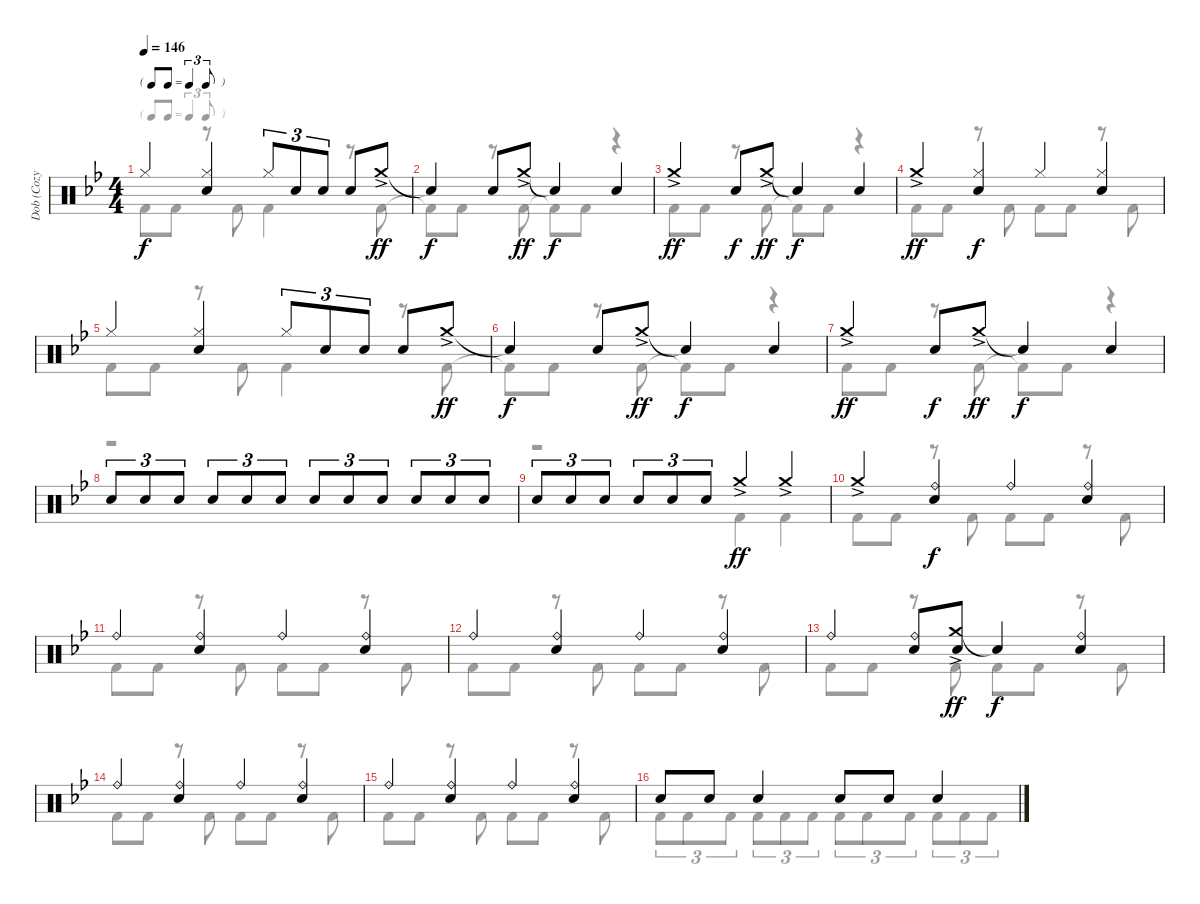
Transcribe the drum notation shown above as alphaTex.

\track ("Dob (Cozy Powell)" "Dob (Cozy ") {instrument percussion}
\staff {score}
\articulation defaults
\voice
\ts (4 4)
\tf triplet8th
\tempo 146
\clef neutral
\ks bb "Hi-Hat (closed)".4{dy f}
("Hi-Hat (closed)" "Electric Snare (hit)").4 "Hi-Hat (closed)".8{tu (3 2)} "Electric Snare (hit)".8{tu (3 2)} "Electric Snare (hit)".8{tu (3 2)} "Electric Snare (hit)".8 "Crash medium (hit)"{ac}.8{dy ff} |
"Snare (hit)"{t}.4{dy f} "Electric Snare (hit)".8 "Crash medium (hit)"{ac}.8{dy ff} "Snare (hit)"{t}.4{dy f} "Electric Snare (hit)".4 |
"Crash medium (hit)"{ac}.4{dy ff} "Electric Snare (hit)".8{dy f} "Crash medium (hit)"{ac}.8{dy ff} "Snare (hit)"{t}.4{dy f} "Electric Snare (hit)".4 |
"Crash medium (hit)"{ac}.4{dy ff} ("Hi-Hat (closed)" "Electric Snare (hit)").4{dy f} "Hi-Hat (closed)".4 ("Hi-Hat (closed)" "Electric Snare (hit)").4 |
"Hi-Hat (closed)".4 ("Hi-Hat (closed)" "Electric Snare (hit)").4 "Hi-Hat (closed)".8{tu (3 2)} "Electric Snare (hit)".8{tu (3 2)} "Electric Snare (hit)".8{tu (3 2)} "Electric Snare (hit)".8 "Crash medium (hit)"{ac}.8{dy ff} |
"Snare (hit)"{t}.4{dy f} "Electric Snare (hit)".8 "Crash medium (hit)"{ac}.8{dy ff} "Snare (hit)"{t}.4{dy f} "Electric Snare (hit)".4 |
"Crash medium (hit)"{ac}.4{dy ff} "Electric Snare (hit)".8{dy f} "Crash medium (hit)"{ac}.8{dy ff} "Snare (hit)"{t}.4{dy f} "Electric Snare (hit)".4 |
"Electric Snare (hit)".8{tu (3 2)} "Electric Snare (hit)".8{tu (3 2)} "Electric Snare (hit)".8{tu (3 2)} "Electric Snare (hit)".8{tu (3 2)} "Electric Snare (hit)".8{tu (3 2)} "Electric Snare (hit)".8{tu (3 2)} "Electric Snare (hit)".8{tu (3 2)} "Electric Snare (hit)".8{tu (3 2)} "Electric Snare (hit)".8{tu (3 2)} "Electric Snare (hit)".8{tu (3 2)} "Electric Snare (hit)".8{tu (3 2)} "Electric Snare (hit)".8{tu (3 2)} |
"Electric Snare (hit)".8{tu (3 2)} "Electric Snare (hit)".8{tu (3 2)} "Electric Snare (hit)".8{tu (3 2)} "Electric Snare (hit)".8{tu (3 2)} "Electric Snare (hit)".8{tu (3 2)} "Electric Snare (hit)".8{tu (3 2)} "Crash medium (hit)"{ac}.4{dy ff} "Crash medium (hit)"{ac}.4 |
"Crash medium (hit)"{ac}.4 ("Ride (bell)" "Electric Snare (hit)").4{dy f} "Ride (bell)".4 ("Ride (bell)" "Electric Snare (hit)").4 |
"Ride (bell)".4 ("Ride (bell)" "Electric Snare (hit)").4 "Ride (bell)".4 ("Ride (bell)" "Electric Snare (hit)").4 |
"Ride (bell)".4 ("Ride (bell)" "Electric Snare (hit)").4 "Ride (bell)".4 ("Ride (bell)" "Electric Snare (hit)").4 |
"Ride (bell)".4 ("Ride (bell)" "Electric Snare (hit)").8 ("Crash medium (hit)"{ac} "Electric Snare (hit)").8{dy ff} "Snare (hit)"{t}.4{dy f} ("Ride (bell)" "Electric Snare (hit)").4 |
"Ride (bell)".4 ("Ride (bell)" "Electric Snare (hit)").4 "Ride (bell)".4 ("Ride (bell)" "Electric Snare (hit)").4 |
"Ride (bell)".4 ("Ride (bell)" "Electric Snare (hit)").4 "Ride (bell)".4 ("Ride (bell)" "Electric Snare (hit)").4 |
"Electric Snare (hit)".8 "Electric Snare (hit)".8 "Electric Snare (hit)".4 "Electric Snare (hit)".8 "Electric Snare (hit)".8 "Electric Snare (hit)".4
\voice
\clef neutral
\ottava regular
\simile none
\ks bb "Kick (hit) 2".8{dy f} "Kick (hit) 2".8
r.8 "Kick (hit) 2".8 "Kick (hit) 2".4 r.8 "Kick (hit) 2".8 |
"Kick (hit) 2"{t}.8 "Kick (hit) 2".8 r.8 "Kick (hit) 2".8 "Kick (hit) 2"{t}.8 "Kick (hit) 2".8 r.4 |
"Kick (hit) 2".8 "Kick (hit) 2".8 r.8 "Kick (hit) 2".8 "Kick (hit) 2"{t}.8 "Kick (hit) 2".8 r.4 |
"Kick (hit) 2".8 "Kick (hit) 2".8 r.8 "Kick (hit) 2".8 "Kick (hit) 2".8 "Kick (hit) 2".8 r.8 "Kick (hit) 2".8 |
"Kick (hit) 2".8 "Kick (hit) 2".8 r.8 "Kick (hit) 2".8 "Kick (hit) 2".4 r.8 "Kick (hit) 2".8 |
"Kick (hit) 2"{t}.8 "Kick (hit) 2".8 r.8 "Kick (hit) 2".8 "Kick (hit) 2"{t}.8 "Kick (hit) 2".8 r.4 |
"Kick (hit) 2".8 "Kick (hit) 2".8 r.8 "Kick (hit) 2".8 "Kick (hit) 2"{t}.8 "Kick (hit) 2".8 r.4 |
r.1 |
r.2 "Kick (hit) 2".4 "Kick (hit) 2".4 |
"Kick (hit) 2".8 "Kick (hit) 2".8 r.8 "Kick (hit) 2".8 "Kick (hit) 2".8 "Kick (hit) 2".8 r.8 "Kick (hit) 2".8 |
"Kick (hit) 2".8 "Kick (hit) 2".8 r.8 "Kick (hit) 2".8 "Kick (hit) 2".8 "Kick (hit) 2".8 r.8 "Kick (hit) 2".8 |
"Kick (hit) 2".8 "Kick (hit) 2".8 r.8 "Kick (hit) 2".8 "Kick (hit) 2".8 "Kick (hit) 2".8 r.8 "Kick (hit) 2".8 |
"Kick (hit) 2".8 "Kick (hit) 2".8 r.8 "Kick (hit) 2".8 "Kick (hit) 2".8 "Kick (hit) 2".8 r.8 "Kick (hit) 2".8 |
"Kick (hit) 2".8 "Kick (hit) 2".8 r.8 "Kick (hit) 2".8 "Kick (hit) 2".8 "Kick (hit) 2".8 r.8 "Kick (hit) 2".8 |
"Kick (hit) 2".8 "Kick (hit) 2".8 r.8 "Kick (hit) 2".8 "Kick (hit) 2".8 "Kick (hit) 2".8 r.8 "Kick (hit) 2".8 |
"Kick (hit) 2".8{tu (3 2)} "Kick (hit) 2".8{tu (3 2)} "Kick (hit) 2".8{tu (3 2)} "Kick (hit) 2".8{tu (3 2)} "Kick (hit) 2".8{tu (3 2)} "Kick (hit) 2".8{tu (3 2)} "Kick (hit) 2".8{tu (3 2)} "Kick (hit) 2".8{tu (3 2)} "Kick (hit) 2".8{tu (3 2)} "Kick (hit) 2".8{tu (3 2)} "Kick (hit) 2".8{tu (3 2)} "Kick (hit) 2".8{tu (3 2)}
